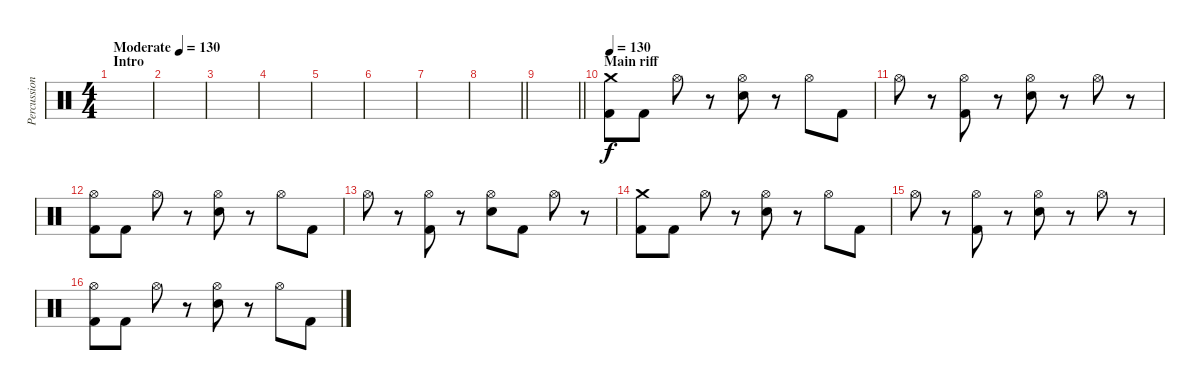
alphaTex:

\track ("Percussion" "Percussion") {instrument percussion}
\staff {score}
\articulation defaults
\ts (4 4)
\section ("" "Intro")
\tempo (130 "Moderate")
\tempo 110
\tempo (130 "Moderate")
\clef neutral
\ks c
|
|
|
|
|
|
|
\barLineRight lightlight
|
\barLineRight lightlight
|
\section ("" "Main riff")
\tempo 130
("Crash medium (hit)" "Kick (hit) 2").8 "Kick (hit) 2".8 "Hi-Hat (open)".8 r.8 ("Hi-Hat (open)" "Electric Snare (hit)").8 r.8 "Hi-Hat (open)".8 "Kick (hit) 2".8 |
"Hi-Hat (open)".8 r.8 ("Hi-Hat (open)" "Kick (hit) 2").8 r.8 ("Hi-Hat (open)" "Electric Snare (hit)").8 r.8 "Hi-Hat (open)".8 r.8 |
("Hi-Hat (open)" "Kick (hit) 2").8 "Kick (hit) 2".8 "Hi-Hat (open)".8 r.8 ("Hi-Hat (open)" "Electric Snare (hit)").8 r.8 "Hi-Hat (open)".8 "Kick (hit) 2".8 |
"Hi-Hat (open)".8 r.8 ("Hi-Hat (open)" "Kick (hit) 2").8 r.8 ("Hi-Hat (open)" "Electric Snare (hit)").8 "Kick (hit) 2".8 "Hi-Hat (open)".8 r.8 |
("Crash medium (hit)" "Kick (hit) 2").8 "Kick (hit) 2".8 "Hi-Hat (open)".8 r.8 ("Hi-Hat (open)" "Electric Snare (hit)").8 r.8 "Hi-Hat (open)".8 "Kick (hit) 2".8 |
"Hi-Hat (open)".8 r.8 ("Hi-Hat (open)" "Kick (hit) 2").8 r.8 ("Hi-Hat (open)" "Electric Snare (hit)").8 r.8 "Hi-Hat (open)".8 r.8 |
("Hi-Hat (open)" "Kick (hit) 2").8 "Kick (hit) 2".8 "Hi-Hat (open)".8 r.8 ("Hi-Hat (open)" "Electric Snare (hit)").8 r.8 "Hi-Hat (open)".8 "Kick (hit) 2".8
